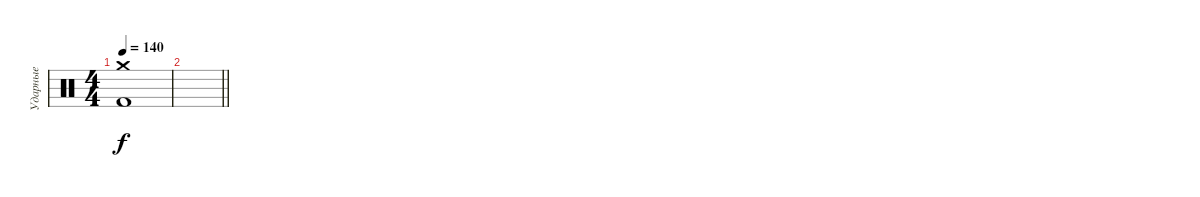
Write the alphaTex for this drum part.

\track ("Ударные" "Ударные") {instrument percussion}
\staff {score}
\articulation defaults
\ts (4 4)
\tempo 140
\clef neutral
\ks c
("Crash medium (hit)" "Kick (hit) 2").1{dy f} |
\barLineRight lightlight
